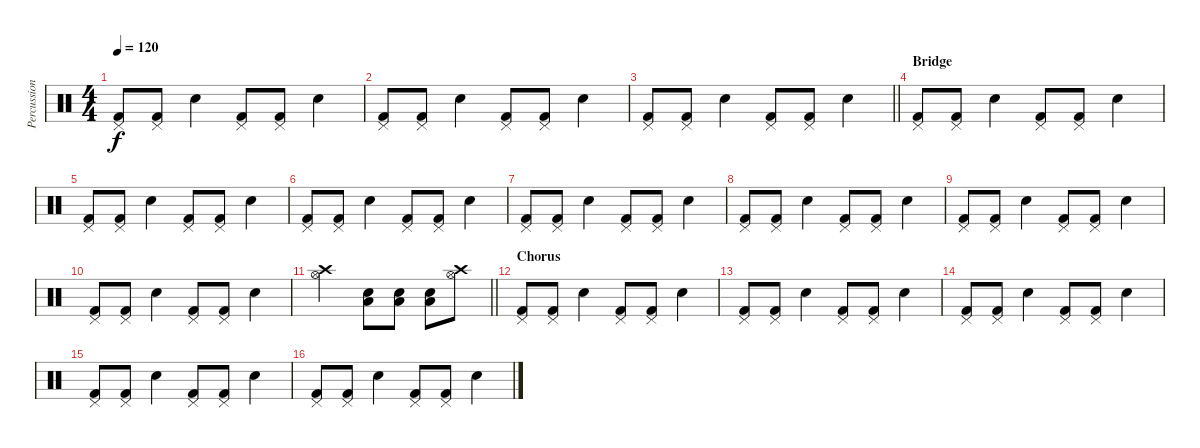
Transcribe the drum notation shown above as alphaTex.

\track ("Percussion" "Percussion") {instrument percussion}
\staff {score}
\articulation defaults
\ts (4 4)
\tempo 120
\clef neutral
\ks c
("Kick (hit) 2" "Pedal Hi-Hat (hit)").8{dy f} ("Kick (hit) 2" "Pedal Hi-Hat (hit)").8 "Electric Snare (hit)".4 ("Kick (hit) 2" "Pedal Hi-Hat (hit)").8 ("Kick (hit) 2" "Pedal Hi-Hat (hit)").8 "Electric Snare (hit)".4 |
("Kick (hit) 2" "Pedal Hi-Hat (hit)").8 ("Kick (hit) 2" "Pedal Hi-Hat (hit)").8 "Electric Snare (hit)".4 ("Kick (hit) 2" "Pedal Hi-Hat (hit)").8 ("Kick (hit) 2" "Pedal Hi-Hat (hit)").8 "Electric Snare (hit)".4 |
\barLineRight lightlight
("Kick (hit) 2" "Pedal Hi-Hat (hit)").8 ("Kick (hit) 2" "Pedal Hi-Hat (hit)").8 "Electric Snare (hit)".4 ("Kick (hit) 2" "Pedal Hi-Hat (hit)").8 ("Kick (hit) 2" "Pedal Hi-Hat (hit)").8 "Electric Snare (hit)".4 |
\section ("" "Bridge")
("Kick (hit) 2" "Pedal Hi-Hat (hit)").8 ("Kick (hit) 2" "Pedal Hi-Hat (hit)").8 "Electric Snare (hit)".4 ("Kick (hit) 2" "Pedal Hi-Hat (hit)").8 ("Kick (hit) 2" "Pedal Hi-Hat (hit)").8 "Electric Snare (hit)".4 |
("Kick (hit) 2" "Pedal Hi-Hat (hit)").8 ("Kick (hit) 2" "Pedal Hi-Hat (hit)").8 "Electric Snare (hit)".4 ("Kick (hit) 2" "Pedal Hi-Hat (hit)").8 ("Kick (hit) 2" "Pedal Hi-Hat (hit)").8 "Electric Snare (hit)".4 |
("Kick (hit) 2" "Pedal Hi-Hat (hit)").8 ("Kick (hit) 2" "Pedal Hi-Hat (hit)").8 "Electric Snare (hit)".4 ("Kick (hit) 2" "Pedal Hi-Hat (hit)").8 ("Kick (hit) 2" "Pedal Hi-Hat (hit)").8 "Electric Snare (hit)".4 |
("Kick (hit) 2" "Pedal Hi-Hat (hit)").8 ("Kick (hit) 2" "Pedal Hi-Hat (hit)").8 "Electric Snare (hit)".4 ("Kick (hit) 2" "Pedal Hi-Hat (hit)").8 ("Kick (hit) 2" "Pedal Hi-Hat (hit)").8 "Electric Snare (hit)".4 |
("Kick (hit) 2" "Pedal Hi-Hat (hit)").8 ("Kick (hit) 2" "Pedal Hi-Hat (hit)").8 "Electric Snare (hit)".4 ("Kick (hit) 2" "Pedal Hi-Hat (hit)").8 ("Kick (hit) 2" "Pedal Hi-Hat (hit)").8 "Electric Snare (hit)".4 |
("Kick (hit) 2" "Pedal Hi-Hat (hit)").8 ("Kick (hit) 2" "Pedal Hi-Hat (hit)").8 "Electric Snare (hit)".4 ("Kick (hit) 2" "Pedal Hi-Hat (hit)").8 ("Kick (hit) 2" "Pedal Hi-Hat (hit)").8 "Electric Snare (hit)".4 |
("Kick (hit) 2" "Pedal Hi-Hat (hit)").8 ("Kick (hit) 2" "Pedal Hi-Hat (hit)").8 "Electric Snare (hit)".4 ("Kick (hit) 2" "Pedal Hi-Hat (hit)").8 ("Kick (hit) 2" "Pedal Hi-Hat (hit)").8 "Electric Snare (hit)".4 |
\barLineRight lightlight
("Crash high (hit)" "Hi-Hat (open)").2 ("Electric Snare (hit)" "Low Tom (hit)").8 ("Electric Snare (hit)" "Low Tom (hit)").8 ("Electric Snare (hit)" "Low Tom (hit)").8 ("Hi-Hat (open)" "Crash high (hit)").8 |
\section ("" "Chorus")
("Kick (hit) 2" "Pedal Hi-Hat (hit)").8 ("Kick (hit) 2" "Pedal Hi-Hat (hit)").8 "Electric Snare (hit)".4 ("Kick (hit) 2" "Pedal Hi-Hat (hit)").8 ("Kick (hit) 2" "Pedal Hi-Hat (hit)").8 "Electric Snare (hit)".4 |
("Kick (hit) 2" "Pedal Hi-Hat (hit)").8 ("Kick (hit) 2" "Pedal Hi-Hat (hit)").8 "Electric Snare (hit)".4 ("Kick (hit) 2" "Pedal Hi-Hat (hit)").8 ("Kick (hit) 2" "Pedal Hi-Hat (hit)").8 "Electric Snare (hit)".4 |
("Kick (hit) 2" "Pedal Hi-Hat (hit)").8 ("Kick (hit) 2" "Pedal Hi-Hat (hit)").8 "Electric Snare (hit)".4 ("Kick (hit) 2" "Pedal Hi-Hat (hit)").8 ("Kick (hit) 2" "Pedal Hi-Hat (hit)").8 "Electric Snare (hit)".4 |
("Kick (hit) 2" "Pedal Hi-Hat (hit)").8 ("Kick (hit) 2" "Pedal Hi-Hat (hit)").8 "Electric Snare (hit)".4 ("Kick (hit) 2" "Pedal Hi-Hat (hit)").8 ("Kick (hit) 2" "Pedal Hi-Hat (hit)").8 "Electric Snare (hit)".4 |
("Kick (hit) 2" "Pedal Hi-Hat (hit)").8 ("Kick (hit) 2" "Pedal Hi-Hat (hit)").8 "Electric Snare (hit)".4 ("Kick (hit) 2" "Pedal Hi-Hat (hit)").8 ("Kick (hit) 2" "Pedal Hi-Hat (hit)").8 "Electric Snare (hit)".4
